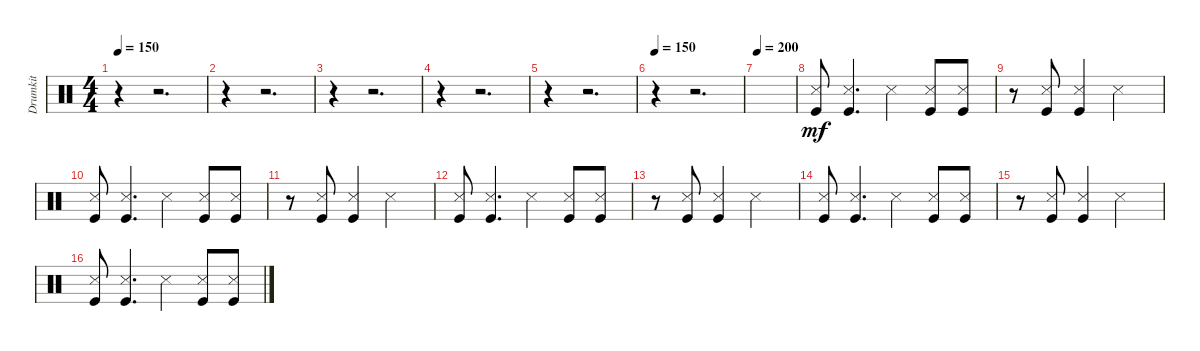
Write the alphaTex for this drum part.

\track ("Drumkit" "Drumkit") {instrument percussion}
\staff {score}
\articulation defaults
\ts (4 4)
\tempo 150
\clef neutral
\ks c
r.4{dy mf} r.2{d} |
r.4 r.2{d} |
r.4 r.2{d} |
r.4 r.2{d} |
r.4 r.2{d} |
\tempo 150
r.4 r.2{d} |
\tempo 200
|
("Snare (side stick) 3" "Kick (hit)").8 ("Snare (side stick) 3" "Kick (hit)").4{d} "Snare (side stick) 3".4 ("Snare (side stick) 3" "Kick (hit)").8 ("Snare (side stick) 3" "Kick (hit)").8 |
r.8 ("Snare (side stick) 3" "Kick (hit)").8 ("Kick (hit)" "Snare (side stick) 3").4 "Snare (side stick) 3".2 |
("Snare (side stick) 3" "Kick (hit)").8 ("Snare (side stick) 3" "Kick (hit)").4{d} "Snare (side stick) 3".4 ("Snare (side stick) 3" "Kick (hit)").8 ("Snare (side stick) 3" "Kick (hit)").8 |
r.8 ("Snare (side stick) 3" "Kick (hit)").8 ("Kick (hit)" "Snare (side stick) 3").4 "Snare (side stick) 3".2 |
("Snare (side stick) 3" "Kick (hit)").8 ("Snare (side stick) 3" "Kick (hit)").4{d} "Snare (side stick) 3".4 ("Snare (side stick) 3" "Kick (hit)").8 ("Snare (side stick) 3" "Kick (hit)").8 |
r.8 ("Snare (side stick) 3" "Kick (hit)").8 ("Kick (hit)" "Snare (side stick) 3").4 "Snare (side stick) 3".2 |
("Snare (side stick) 3" "Kick (hit)").8 ("Snare (side stick) 3" "Kick (hit)").4{d} "Snare (side stick) 3".4 ("Snare (side stick) 3" "Kick (hit)").8 ("Snare (side stick) 3" "Kick (hit)").8 |
r.8 ("Snare (side stick) 3" "Kick (hit)").8 ("Kick (hit)" "Snare (side stick) 3").4 "Snare (side stick) 3".2 |
("Snare (side stick) 3" "Kick (hit)").8 ("Snare (side stick) 3" "Kick (hit)").4{d} "Snare (side stick) 3".4 ("Snare (side stick) 3" "Kick (hit)").8 ("Snare (side stick) 3" "Kick (hit)").8
